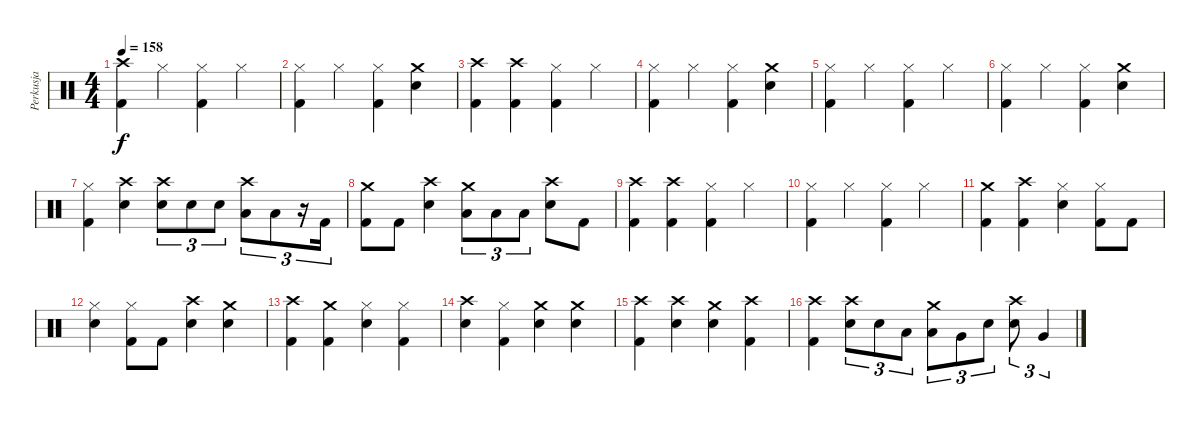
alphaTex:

\track ("Perkusja" "Perkusja") {instrument percussion}
\staff {score}
\articulation defaults
\ts (4 4)
\tempo 158
\clef neutral
\ks c
("Crash high (hit)" "Kick (hit) 2").4{dy f} "Hi-Hat (closed)".4 ("Hi-Hat (closed)" "Kick (hit) 2").4 "Hi-Hat (closed)".4 |
("Hi-Hat (closed)" "Kick (hit) 2").4 "Hi-Hat (closed)".4 ("Hi-Hat (closed)" "Kick (hit) 2").4 ("Crash medium (hit)" "Snare (hit) 2").4 |
("Crash high (hit)" "Kick (hit) 2").4 ("Crash high (hit)" "Kick (hit) 2").4 ("Hi-Hat (closed)" "Kick (hit) 2").4 "Hi-Hat (closed)".4 |
("Hi-Hat (closed)" "Kick (hit) 2").4 "Hi-Hat (closed)".4 ("Hi-Hat (closed)" "Kick (hit) 2").4 ("Crash medium (hit)" "Snare (hit) 2").4 |
("Hi-Hat (closed)" "Kick (hit) 2").4 "Hi-Hat (closed)".4 ("Hi-Hat (closed)" "Kick (hit) 2").4 "Hi-Hat (closed)".4 |
("Hi-Hat (closed)" "Kick (hit) 2").4 "Hi-Hat (closed)".4 ("Hi-Hat (closed)" "Kick (hit) 2").4 ("Crash medium (hit)" "Snare (hit) 2").4 |
("Hi-Hat (closed)" "Kick (hit) 2").4 ("Crash high (hit)" "Snare (hit) 2").4 ("Crash high (hit)" "Snare (hit) 2").8{tu (3 2)} "Snare (hit) 2".8{tu (3 2)} "Snare (hit) 2".8{tu (3 2)} ("Crash high (hit)" "Low Tom (hit)").8{tu (3 2)} "Low Tom (hit)".8{tu (3 2)} r.16{tu (3 2)} "Kick (hit) 2".16{tu (3 2)} |
("Crash medium (hit)" "Kick (hit) 2").8 "Kick (hit) 2".8 ("Crash high (hit)" "Snare (hit) 2").4 ("Crash medium (hit)" "Low Tom (hit)").8{tu (3 2)} "Low Tom (hit)".8{tu (3 2)} "Low Tom (hit)".8{tu (3 2)} ("Crash high (hit)" "Snare (hit) 2").8 "Kick (hit) 2".8 |
("Crash high (hit)" "Kick (hit) 2").4 ("Crash high (hit)" "Kick (hit) 2").4 ("Hi-Hat (closed)" "Kick (hit) 2").4 "Hi-Hat (closed)".4 |
("Hi-Hat (closed)" "Kick (hit) 2").4 "Hi-Hat (closed)".4 ("Hi-Hat (closed)" "Kick (hit) 2").4 "Hi-Hat (closed)".4 |
("Crash medium (hit)" "Kick (hit) 2").4 ("Crash high (hit)" "Kick (hit) 2").4 ("Hi-Hat (closed)" "Snare (hit) 2").4 ("Hi-Hat (closed)" "Kick (hit) 2").8 "Kick (hit) 2".8 |
("Hi-Hat (closed)" "Snare (hit) 2").4 ("Hi-Hat (closed)" "Kick (hit) 2").8 "Kick (hit) 2".8 ("Crash high (hit)" "Snare (hit) 2").4 ("Crash medium (hit)" "Snare (hit) 2").4 |
("Kick (hit) 2" "Crash high (hit)").4 ("Kick (hit) 2" "Crash medium (hit)").4 ("Hi-Hat (closed)" "Snare (hit) 2").4 ("Kick (hit) 2" "Hi-Hat (closed)").4 |
("Snare (hit) 2" "Crash high (hit)").4 ("Kick (hit) 2" "Hi-Hat (closed)").4 ("Snare (hit) 2" "Crash medium (hit)").4 ("Snare (hit) 2" "Crash medium (hit)").4 |
("Kick (hit) 2" "Crash high (hit)").4 ("Crash high (hit)" "Snare (hit) 2").4 ("Snare (hit) 2" "Crash medium (hit)").4 ("Kick (hit) 2" "Crash high (hit)").4 |
("Kick (hit) 2" "Crash high (hit)").4 ("Crash high (hit)" "Snare (hit) 2").8{tu (3 2)} "Snare (hit) 2".8{tu (3 2)} "Low Tom (hit)".8{tu (3 2)} ("Crash medium (hit)" "Low Tom (hit)").8{tu (3 2)} "Very Low Tom (hit)".8{tu (3 2)} "Snare (hit) 2".8{tu (3 2)} ("Crash high (hit)" "Snare (hit) 2").8{tu (3 2)} "Very Low Tom (hit)".4{tu (3 2)}
